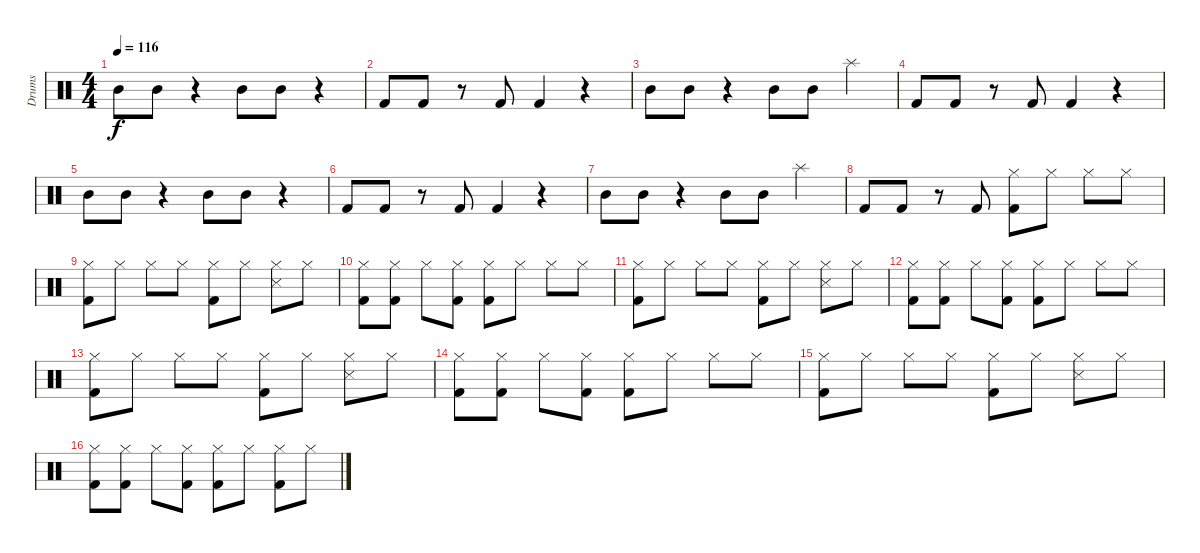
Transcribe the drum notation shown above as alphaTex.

\track ("Drums" "Drums") {instrument percussion}
\staff {score}
\articulation defaults
\ts (4 4)
\tempo 116
\clef neutral
\ks c "Mid Tom (hit)".8{dy f} "Mid Tom (hit)".8
r.4 "Mid Tom (hit)".8 "Mid Tom (hit)".8 r.4 |
"Kick (hit) 2".8 "Kick (hit) 2".8 r.8 "Kick (hit) 2".8 "Kick (hit) 2".4 r.4 |
"Mid Tom (hit)".8 "Mid Tom (hit)".8 r.4 "Mid Tom (hit)".8 "Mid Tom (hit)".8 "Splash (hit)".4 |
"Kick (hit) 2".8 "Kick (hit) 2".8 r.8 "Kick (hit) 2".8 "Kick (hit) 2".4 r.4 |
"Mid Tom (hit)".8 "Mid Tom (hit)".8 r.4 "Mid Tom (hit)".8 "Mid Tom (hit)".8 r.4 |
"Kick (hit) 2".8 "Kick (hit) 2".8 r.8 "Kick (hit) 2".8 "Kick (hit) 2".4 r.4 |
"Mid Tom (hit)".8 "Mid Tom (hit)".8 r.4 "Mid Tom (hit)".8 "Mid Tom (hit)".8 "Splash (hit)".4 |
"Kick (hit) 2".8 "Kick (hit) 2".8 r.8 "Kick (hit) 2".8 ("Kick (hit) 2" "Hi-Hat (closed)").8 "Hi-Hat (closed)".8 "Hi-Hat (closed)".8 "Hi-Hat (closed)".8 |
("Kick (hit) 2" "Hi-Hat (closed)").8 "Hi-Hat (closed)".8 "Hi-Hat (closed)".8 "Hi-Hat (closed)".8 ("Kick (hit) 2" "Hi-Hat (closed)").8 "Hi-Hat (closed)".8 ("Metronome (hit)" "Hi-Hat (closed)").8 "Hi-Hat (closed)".8 |
("Kick (hit) 2" "Hi-Hat (closed)").8 ("Kick (hit) 2" "Hi-Hat (closed)").8 "Hi-Hat (closed)".8 ("Kick (hit) 2" "Hi-Hat (closed)").8 ("Kick (hit) 2" "Hi-Hat (closed)").8 "Hi-Hat (closed)".8 "Hi-Hat (closed)".8 "Hi-Hat (closed)".8 |
("Kick (hit) 2" "Hi-Hat (closed)").8 "Hi-Hat (closed)".8 "Hi-Hat (closed)".8 "Hi-Hat (closed)".8 ("Kick (hit) 2" "Hi-Hat (closed)").8 "Hi-Hat (closed)".8 ("Metronome (hit)" "Hi-Hat (closed)").8 "Hi-Hat (closed)".8 |
("Kick (hit) 2" "Hi-Hat (closed)").8 ("Kick (hit) 2" "Hi-Hat (closed)").8 "Hi-Hat (closed)".8 ("Kick (hit) 2" "Hi-Hat (closed)").8 ("Kick (hit) 2" "Hi-Hat (closed)").8 "Hi-Hat (closed)".8 "Hi-Hat (closed)".8 "Hi-Hat (closed)".8 |
("Kick (hit) 2" "Hi-Hat (closed)").8 "Hi-Hat (closed)".8 "Hi-Hat (closed)".8 "Hi-Hat (closed)".8 ("Kick (hit) 2" "Hi-Hat (closed)").8 "Hi-Hat (closed)".8 ("Metronome (hit)" "Hi-Hat (closed)").8 "Hi-Hat (closed)".8 |
("Kick (hit) 2" "Hi-Hat (closed)").8 ("Kick (hit) 2" "Hi-Hat (closed)").8 "Hi-Hat (closed)".8 ("Kick (hit) 2" "Hi-Hat (closed)").8 ("Kick (hit) 2" "Hi-Hat (closed)").8 "Hi-Hat (closed)".8 "Hi-Hat (closed)".8 "Hi-Hat (closed)".8 |
("Kick (hit) 2" "Hi-Hat (closed)").8 "Hi-Hat (closed)".8 "Hi-Hat (closed)".8 "Hi-Hat (closed)".8 ("Kick (hit) 2" "Hi-Hat (closed)").8 "Hi-Hat (closed)".8 ("Metronome (hit)" "Hi-Hat (closed)").8 "Hi-Hat (closed)".8 |
("Kick (hit) 2" "Hi-Hat (closed)").8 ("Kick (hit) 2" "Hi-Hat (closed)").8 "Hi-Hat (closed)".8 ("Kick (hit) 2" "Hi-Hat (closed)").8 ("Kick (hit) 2" "Hi-Hat (closed)").8 "Hi-Hat (closed)".8 ("Kick (hit) 2" "Hi-Hat (closed)").8 "Hi-Hat (closed)".8
